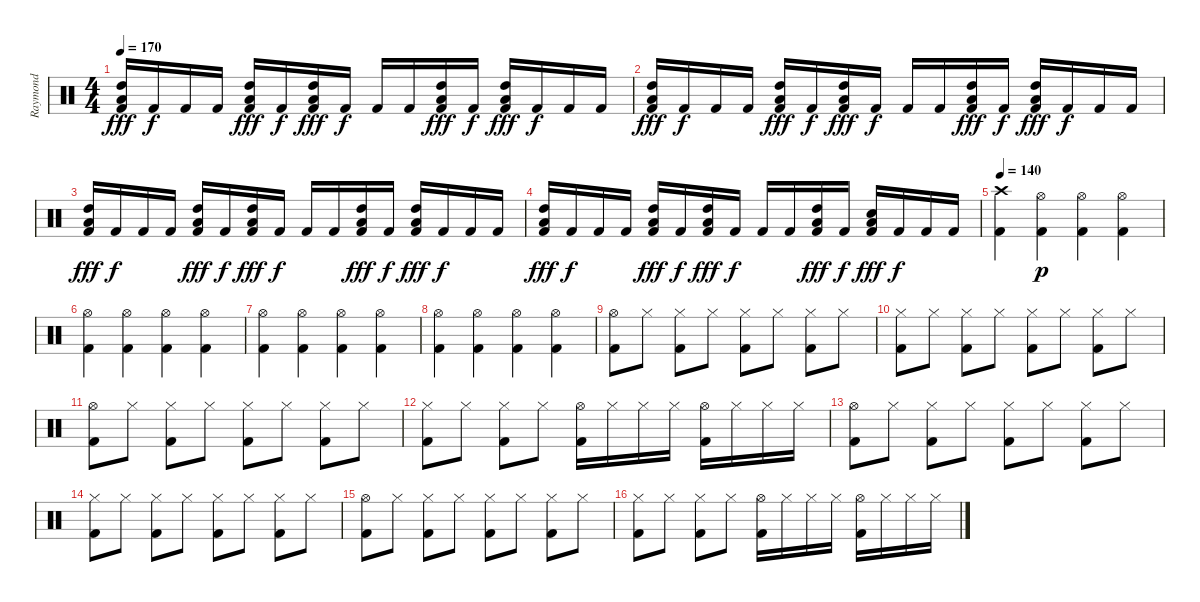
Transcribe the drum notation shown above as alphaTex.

\track ("Raymond" "Raymond") {instrument percussion}
\staff {score}
\articulation defaults
\ts (4 4)
\tempo 170
\clef neutral
\ks c
("High Tom (hit)" "Low Tom (hit)" "Kick (hit) 2").16{dy fff} "Kick (hit) 2".16{dy f} "Kick (hit) 2".16 "Kick (hit) 2".16 ("High Tom (hit)" "Low Tom (hit)" "Kick (hit) 2").16{dy fff} "Kick (hit) 2".16{dy f} ("High Tom (hit)" "Low Tom (hit)" "Kick (hit) 2").16{dy fff} "Kick (hit) 2".16{dy f} "Kick (hit) 2".16 "Kick (hit) 2".16 ("High Tom (hit)" "Low Tom (hit)" "Kick (hit) 2").16{dy fff} "Kick (hit) 2".16{dy f} ("High Tom (hit)" "Low Tom (hit)" "Kick (hit) 2").16{dy fff} "Kick (hit) 2".16{dy f} "Kick (hit) 2".16 "Kick (hit) 2".16 |
("High Tom (hit)" "Low Tom (hit)" "Kick (hit) 2").16{dy fff} "Kick (hit) 2".16{dy f} "Kick (hit) 2".16 "Kick (hit) 2".16 ("High Tom (hit)" "Low Tom (hit)" "Kick (hit) 2").16{dy fff} "Kick (hit) 2".16{dy f} ("High Tom (hit)" "Low Tom (hit)" "Kick (hit) 2").16{dy fff} "Kick (hit) 2".16{dy f} "Kick (hit) 2".16 "Kick (hit) 2".16 ("High Tom (hit)" "Low Tom (hit)" "Kick (hit) 2").16{dy fff} "Kick (hit) 2".16{dy f} ("High Tom (hit)" "Low Tom (hit)" "Kick (hit) 2").16{dy fff} "Kick (hit) 2".16{dy f} "Kick (hit) 2".16 "Kick (hit) 2".16 |
("High Tom (hit)" "Low Tom (hit)" "Kick (hit) 2").16{dy fff} "Kick (hit) 2".16{dy f} "Kick (hit) 2".16 "Kick (hit) 2".16 ("High Tom (hit)" "Low Tom (hit)" "Kick (hit) 2").16{dy fff} "Kick (hit) 2".16{dy f} ("High Tom (hit)" "Low Tom (hit)" "Kick (hit) 2").16{dy fff} "Kick (hit) 2".16{dy f} "Kick (hit) 2".16 "Kick (hit) 2".16 ("High Tom (hit)" "Low Tom (hit)" "Kick (hit) 2").16{dy fff} "Kick (hit) 2".16{dy f} ("High Tom (hit)" "Low Tom (hit)" "Kick (hit) 2").16{dy fff} "Kick (hit) 2".16{dy f} "Kick (hit) 2".16 "Kick (hit) 2".16 |
("High Tom (hit)" "Low Tom (hit)" "Kick (hit) 2").16{dy fff} "Kick (hit) 2".16{dy f} "Kick (hit) 2".16 "Kick (hit) 2".16 ("High Tom (hit)" "Low Tom (hit)" "Kick (hit) 2").16{dy fff} "Kick (hit) 2".16{dy f} ("High Tom (hit)" "Low Tom (hit)" "Kick (hit) 2").16{dy fff} "Kick (hit) 2".16{dy f} "Kick (hit) 2".16 "Kick (hit) 2".16 ("High Tom (hit)" "Low Tom (hit)" "Kick (hit) 2").16{dy fff} "Kick (hit) 2".16{dy f} ("Electric Snare (hit)" "Low Tom (hit)" "Kick (hit) 2").16{dy fff} "Kick (hit) 2".16{dy f} "Kick (hit) 2".16 "Kick (hit) 2".16 |
\tempo 140
("Crash high (hit)" "Kick (hit) 2").4 ("Hi-Hat (open)" "Kick (hit) 2").4{dy p} ("Hi-Hat (open)" "Kick (hit) 2").4 ("Hi-Hat (open)" "Kick (hit) 2").4 |
("Hi-Hat (open)" "Kick (hit) 2").4 ("Hi-Hat (open)" "Kick (hit) 2").4 ("Hi-Hat (open)" "Kick (hit) 2").4 ("Hi-Hat (open)" "Kick (hit) 2").4 |
("Hi-Hat (open)" "Kick (hit) 2").4 ("Hi-Hat (open)" "Kick (hit) 2").4 ("Hi-Hat (open)" "Kick (hit) 2").4 ("Hi-Hat (open)" "Kick (hit) 2").4 |
("Hi-Hat (open)" "Kick (hit) 2").4 ("Hi-Hat (open)" "Kick (hit) 2").4 ("Hi-Hat (open)" "Kick (hit) 2").4 ("Hi-Hat (open)" "Kick (hit) 2").4 |
("Hi-Hat (open)" "Kick (hit) 2").8 "Hi-Hat (closed)".8 ("Hi-Hat (closed)" "Kick (hit) 2").8 "Hi-Hat (closed)".8 ("Hi-Hat (closed)" "Kick (hit) 2").8 "Hi-Hat (closed)".8 ("Hi-Hat (closed)" "Kick (hit) 2").8 "Hi-Hat (closed)".8 |
("Hi-Hat (closed)" "Kick (hit) 2").8 "Hi-Hat (closed)".8 ("Hi-Hat (closed)" "Kick (hit) 2").8 "Hi-Hat (closed)".8 ("Hi-Hat (closed)" "Kick (hit) 2").8 "Hi-Hat (closed)".8 ("Hi-Hat (closed)" "Kick (hit) 2").8 "Hi-Hat (closed)".8 |
("Hi-Hat (open)" "Kick (hit) 2").8 "Hi-Hat (closed)".8 ("Hi-Hat (closed)" "Kick (hit) 2").8 "Hi-Hat (closed)".8 ("Hi-Hat (closed)" "Kick (hit) 2").8 "Hi-Hat (closed)".8 ("Hi-Hat (closed)" "Kick (hit) 2").8 "Hi-Hat (closed)".8 |
("Hi-Hat (closed)" "Kick (hit) 2").8 "Hi-Hat (closed)".8 ("Hi-Hat (closed)" "Kick (hit) 2").8 "Hi-Hat (closed)".8 ("Hi-Hat (open)" "Kick (hit) 2").16 "Hi-Hat (closed)".16 "Hi-Hat (closed)".16 "Hi-Hat (closed)".16 ("Hi-Hat (open)" "Kick (hit) 2").16 "Hi-Hat (closed)".16 "Hi-Hat (closed)".16 "Hi-Hat (closed)".16 |
("Hi-Hat (open)" "Kick (hit) 2").8 "Hi-Hat (closed)".8 ("Hi-Hat (closed)" "Kick (hit) 2").8 "Hi-Hat (closed)".8 ("Hi-Hat (closed)" "Kick (hit) 2").8 "Hi-Hat (closed)".8 ("Hi-Hat (closed)" "Kick (hit) 2").8 "Hi-Hat (closed)".8 |
("Hi-Hat (closed)" "Kick (hit) 2").8 "Hi-Hat (closed)".8 ("Hi-Hat (closed)" "Kick (hit) 2").8 "Hi-Hat (closed)".8 ("Hi-Hat (closed)" "Kick (hit) 2").8 "Hi-Hat (closed)".8 ("Hi-Hat (closed)" "Kick (hit) 2").8 "Hi-Hat (closed)".8 |
("Hi-Hat (open)" "Kick (hit) 2").8 "Hi-Hat (closed)".8 ("Hi-Hat (closed)" "Kick (hit) 2").8 "Hi-Hat (closed)".8 ("Hi-Hat (closed)" "Kick (hit) 2").8 "Hi-Hat (closed)".8 ("Hi-Hat (closed)" "Kick (hit) 2").8 "Hi-Hat (closed)".8 |
("Hi-Hat (closed)" "Kick (hit) 2").8 "Hi-Hat (closed)".8 ("Hi-Hat (closed)" "Kick (hit) 2").8 "Hi-Hat (closed)".8 ("Hi-Hat (open)" "Kick (hit) 2").16 "Hi-Hat (closed)".16 "Hi-Hat (closed)".16 "Hi-Hat (closed)".16 ("Hi-Hat (open)" "Kick (hit) 2").16 "Hi-Hat (closed)".16 "Hi-Hat (closed)".16 "Hi-Hat (closed)".16
